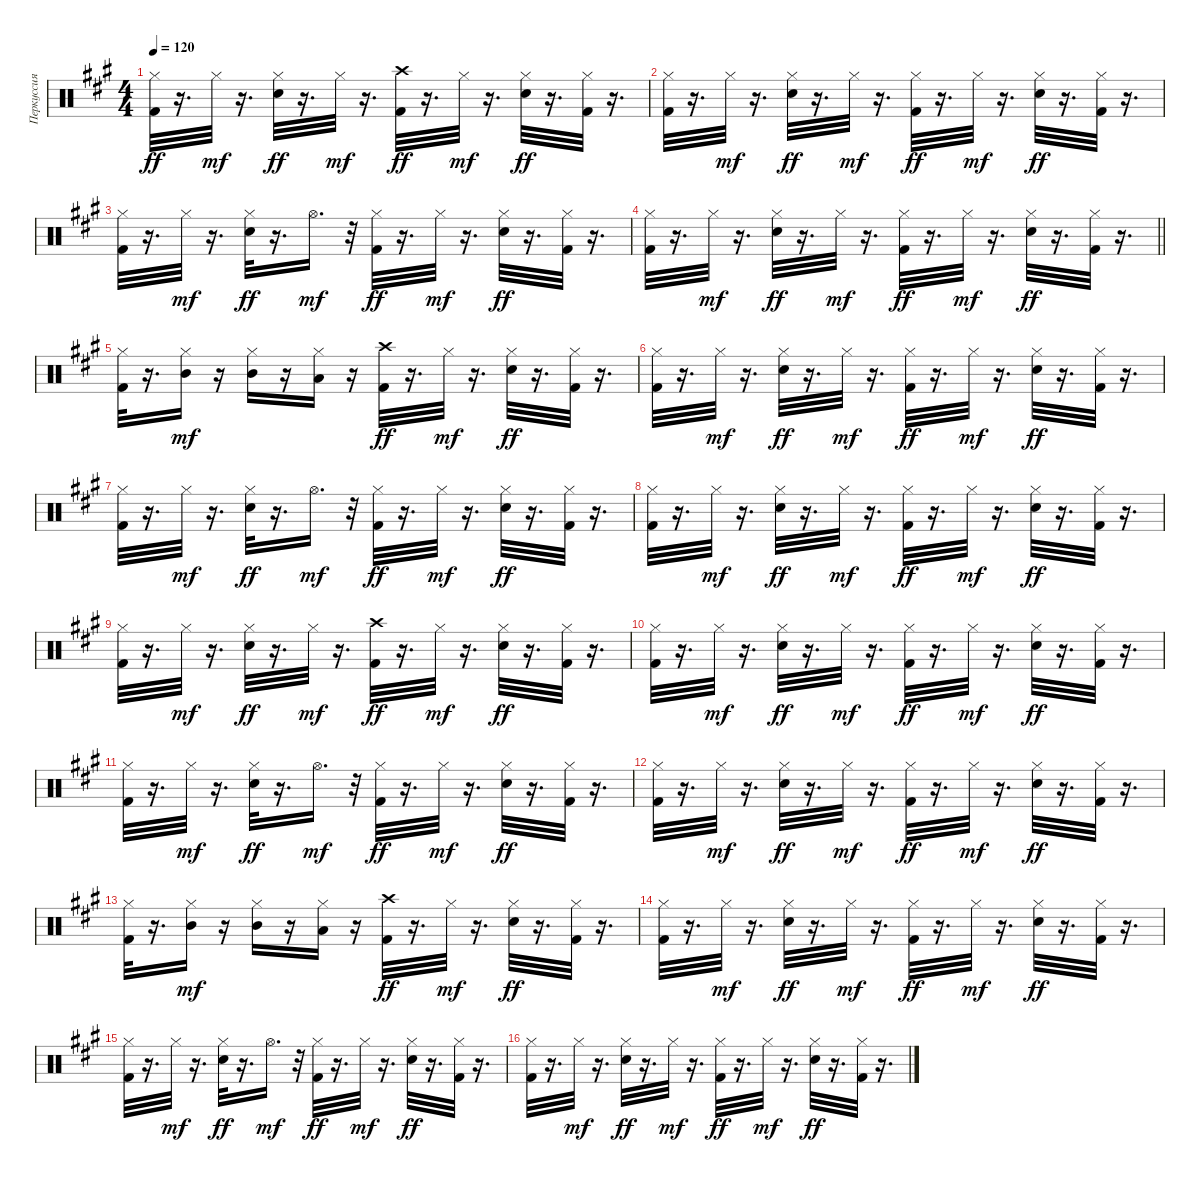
\track ("Перкуссия" "Перкуссия") {instrument percussion}
\staff {score}
\articulation defaults
\ts (4 4)
\tempo 120
\clef neutral
\ks f#minor
("Hi-Hat (closed)" "Kick (hit) 2").32{dy ff} r.16{d} "Hi-Hat (closed)".32{dy mf} r.16{d} ("Hi-Hat (closed)" "Snare (hit) 2").32{dy ff} r.16{d} "Hi-Hat (closed)".32{dy mf} r.16{d} ("Crash high (hit)" "Kick (hit) 2").32{dy ff} r.16{d} "Hi-Hat (closed)".32{dy mf} r.16{d} ("Hi-Hat (closed)" "Snare (hit) 2").32{dy ff} r.16{d} ("Hi-Hat (closed)" "Kick (hit) 2").32 r.16{d} |
("Hi-Hat (closed)" "Kick (hit) 2").32 r.16{d} "Hi-Hat (closed)".32{dy mf} r.16{d} ("Hi-Hat (closed)" "Snare (hit) 2").32{dy ff} r.16{d} "Hi-Hat (closed)".32{dy mf} r.16{d} ("Hi-Hat (closed)" "Kick (hit) 2").32{dy ff} r.16{d} "Hi-Hat (closed)".32{dy mf} r.16{d} ("Hi-Hat (closed)" "Snare (hit) 2").32{dy ff} r.16{d} ("Hi-Hat (closed)" "Kick (hit) 2").32 r.16{d} |
("Hi-Hat (closed)" "Kick (hit) 2").32 r.16{d} "Hi-Hat (closed)".32{dy mf} r.16{d} ("Hi-Hat (closed)" "Snare (hit) 2").32{dy ff} r.16{d} "Hi-Hat (open)".16{d dy mf} r.32 ("Hi-Hat (closed)" "Kick (hit) 2").32{dy ff} r.16{d} "Hi-Hat (closed)".32{dy mf} r.16{d} ("Hi-Hat (closed)" "Snare (hit) 2").32{dy ff} r.16{d} ("Hi-Hat (closed)" "Kick (hit) 2").32 r.16{d} |
\barLineRight lightlight
("Hi-Hat (closed)" "Kick (hit) 2").32 r.16{d} "Hi-Hat (closed)".32{dy mf} r.16{d} ("Hi-Hat (closed)" "Snare (hit) 2").32{dy ff} r.16{d} "Hi-Hat (closed)".32{dy mf} r.16{d} ("Hi-Hat (closed)" "Kick (hit) 2").32{dy ff} r.16{d} "Hi-Hat (closed)".32{dy mf} r.16{d} ("Hi-Hat (closed)" "Snare (hit) 2").32{dy ff} r.16{d} ("Hi-Hat (closed)" "Kick (hit) 2").32 r.16{d} |
("Hi-Hat (closed)" "Kick (hit) 2").32 r.16{d} ("Hi-Hat (closed)" "Mid Tom (hit)").16{dy mf} r.16 ("Hi-Hat (closed)" "Mid Tom (hit)").16 r.16 ("Hi-Hat (closed)" "Low Tom (hit)").16 r.16 ("Crash high (hit)" "Kick (hit) 2").32{dy ff} r.16{d} "Hi-Hat (closed)".32{dy mf} r.16{d} ("Hi-Hat (closed)" "Snare (hit) 2").32{dy ff} r.16{d} ("Hi-Hat (closed)" "Kick (hit) 2").32 r.16{d} |
("Hi-Hat (closed)" "Kick (hit) 2").32 r.16{d} "Hi-Hat (closed)".32{dy mf} r.16{d} ("Hi-Hat (closed)" "Snare (hit) 2").32{dy ff} r.16{d} "Hi-Hat (closed)".32{dy mf} r.16{d} ("Hi-Hat (closed)" "Kick (hit) 2").32{dy ff} r.16{d} "Hi-Hat (closed)".32{dy mf} r.16{d} ("Hi-Hat (closed)" "Snare (hit) 2").32{dy ff} r.16{d} ("Hi-Hat (closed)" "Kick (hit) 2").32 r.16{d} |
("Hi-Hat (closed)" "Kick (hit) 2").32 r.16{d} "Hi-Hat (closed)".32{dy mf} r.16{d} ("Hi-Hat (closed)" "Snare (hit) 2").32{dy ff} r.16{d} "Hi-Hat (open)".16{d dy mf} r.32 ("Hi-Hat (closed)" "Kick (hit) 2").32{dy ff} r.16{d} "Hi-Hat (closed)".32{dy mf} r.16{d} ("Hi-Hat (closed)" "Snare (hit) 2").32{dy ff} r.16{d} ("Hi-Hat (closed)" "Kick (hit) 2").32 r.16{d} |
("Hi-Hat (closed)" "Kick (hit) 2").32 r.16{d} "Hi-Hat (closed)".32{dy mf} r.16{d} ("Hi-Hat (closed)" "Snare (hit) 2").32{dy ff} r.16{d} "Hi-Hat (closed)".32{dy mf} r.16{d} ("Hi-Hat (closed)" "Kick (hit) 2").32{dy ff} r.16{d} "Hi-Hat (closed)".32{dy mf} r.16{d} ("Hi-Hat (closed)" "Snare (hit) 2").32{dy ff} r.16{d} ("Hi-Hat (closed)" "Kick (hit) 2").32 r.16{d} |
("Hi-Hat (closed)" "Kick (hit) 2").32 r.16{d} "Hi-Hat (closed)".32{dy mf} r.16{d} ("Hi-Hat (closed)" "Snare (hit) 2").32{dy ff} r.16{d} "Hi-Hat (closed)".32{dy mf} r.16{d} ("Crash high (hit)" "Kick (hit) 2").32{dy ff} r.16{d} "Hi-Hat (closed)".32{dy mf} r.16{d} ("Hi-Hat (closed)" "Snare (hit) 2").32{dy ff} r.16{d} ("Hi-Hat (closed)" "Kick (hit) 2").32 r.16{d} |
("Hi-Hat (closed)" "Kick (hit) 2").32 r.16{d} "Hi-Hat (closed)".32{dy mf} r.16{d} ("Hi-Hat (closed)" "Snare (hit) 2").32{dy ff} r.16{d} "Hi-Hat (closed)".32{dy mf} r.16{d} ("Hi-Hat (closed)" "Kick (hit) 2").32{dy ff} r.16{d} "Hi-Hat (closed)".32{dy mf} r.16{d} ("Hi-Hat (closed)" "Snare (hit) 2").32{dy ff} r.16{d} ("Hi-Hat (closed)" "Kick (hit) 2").32 r.16{d} |
("Hi-Hat (closed)" "Kick (hit) 2").32 r.16{d} "Hi-Hat (closed)".32{dy mf} r.16{d} ("Hi-Hat (closed)" "Snare (hit) 2").32{dy ff} r.16{d} "Hi-Hat (open)".16{d dy mf} r.32 ("Hi-Hat (closed)" "Kick (hit) 2").32{dy ff} r.16{d} "Hi-Hat (closed)".32{dy mf} r.16{d} ("Hi-Hat (closed)" "Snare (hit) 2").32{dy ff} r.16{d} ("Hi-Hat (closed)" "Kick (hit) 2").32 r.16{d} |
("Hi-Hat (closed)" "Kick (hit) 2").32 r.16{d} "Hi-Hat (closed)".32{dy mf} r.16{d} ("Hi-Hat (closed)" "Snare (hit) 2").32{dy ff} r.16{d} "Hi-Hat (closed)".32{dy mf} r.16{d} ("Hi-Hat (closed)" "Kick (hit) 2").32{dy ff} r.16{d} "Hi-Hat (closed)".32{dy mf} r.16{d} ("Hi-Hat (closed)" "Snare (hit) 2").32{dy ff} r.16{d} ("Hi-Hat (closed)" "Kick (hit) 2").32 r.16{d} |
("Hi-Hat (closed)" "Kick (hit) 2").32 r.16{d} ("Hi-Hat (closed)" "Mid Tom (hit)").16{dy mf} r.16 ("Hi-Hat (closed)" "Mid Tom (hit)").16 r.16 ("Hi-Hat (closed)" "Low Tom (hit)").16 r.16 ("Crash high (hit)" "Kick (hit) 2").32{dy ff} r.16{d} "Hi-Hat (closed)".32{dy mf} r.16{d} ("Hi-Hat (closed)" "Snare (hit) 2").32{dy ff} r.16{d} ("Hi-Hat (closed)" "Kick (hit) 2").32 r.16{d} |
("Hi-Hat (closed)" "Kick (hit) 2").32 r.16{d} "Hi-Hat (closed)".32{dy mf} r.16{d} ("Hi-Hat (closed)" "Snare (hit) 2").32{dy ff} r.16{d} "Hi-Hat (closed)".32{dy mf} r.16{d} ("Hi-Hat (closed)" "Kick (hit) 2").32{dy ff} r.16{d} "Hi-Hat (closed)".32{dy mf} r.16{d} ("Hi-Hat (closed)" "Snare (hit) 2").32{dy ff} r.16{d} ("Hi-Hat (closed)" "Kick (hit) 2").32 r.16{d} |
("Hi-Hat (closed)" "Kick (hit) 2").32 r.16{d} "Hi-Hat (closed)".32{dy mf} r.16{d} ("Hi-Hat (closed)" "Snare (hit) 2").32{dy ff} r.16{d} "Hi-Hat (open)".16{d dy mf} r.32 ("Hi-Hat (closed)" "Kick (hit) 2").32{dy ff} r.16{d} "Hi-Hat (closed)".32{dy mf} r.16{d} ("Hi-Hat (closed)" "Snare (hit) 2").32{dy ff} r.16{d} ("Hi-Hat (closed)" "Kick (hit) 2").32 r.16{d} |
("Hi-Hat (closed)" "Kick (hit) 2").32 r.16{d} "Hi-Hat (closed)".32{dy mf} r.16{d} ("Hi-Hat (closed)" "Snare (hit) 2").32{dy ff} r.16{d} "Hi-Hat (closed)".32{dy mf} r.16{d} ("Hi-Hat (closed)" "Kick (hit) 2").32{dy ff} r.16{d} "Hi-Hat (closed)".32{dy mf} r.16{d} ("Hi-Hat (closed)" "Snare (hit) 2").32{dy ff} r.16{d} ("Hi-Hat (closed)" "Kick (hit) 2").32 r.16{d}
